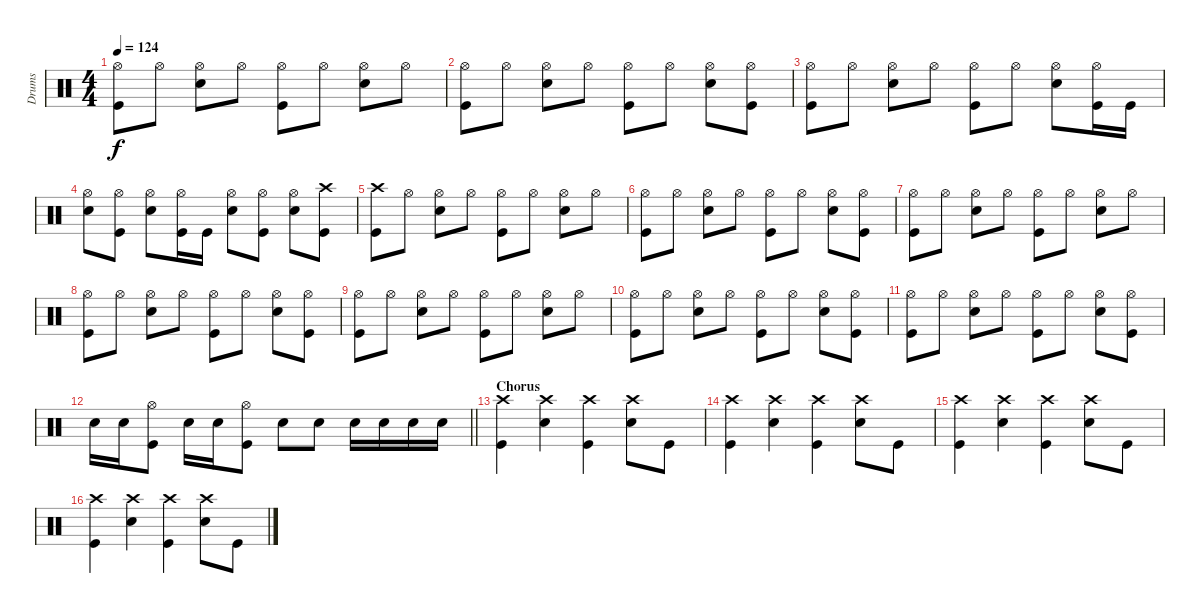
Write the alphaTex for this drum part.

\track ("Drums" "Drums") {instrument percussion}
\staff {score}
\articulation defaults
\ts (4 4)
\tempo 124
\clef neutral
\ks c
("Kick (hit)" "Hi-Hat (open)").8{dy f} "Hi-Hat (open)".8 ("Snare (hit) 2" "Hi-Hat (open)").8 "Hi-Hat (open)".8 ("Kick (hit)" "Hi-Hat (open)").8 "Hi-Hat (open)".8 ("Snare (hit) 2" "Hi-Hat (open)").8 "Hi-Hat (open)".8 |
("Kick (hit)" "Hi-Hat (open)").8 "Hi-Hat (open)".8 ("Snare (hit) 2" "Hi-Hat (open)").8 "Hi-Hat (open)".8 ("Kick (hit)" "Hi-Hat (open)").8 "Hi-Hat (open)".8 ("Snare (hit) 2" "Hi-Hat (open)").8 ("Hi-Hat (open)" "Kick (hit)").8 |
("Kick (hit)" "Hi-Hat (open)").8 "Hi-Hat (open)".8 ("Snare (hit) 2" "Hi-Hat (open)").8 "Hi-Hat (open)".8 ("Kick (hit)" "Hi-Hat (open)").8 "Hi-Hat (open)".8 ("Snare (hit) 2" "Hi-Hat (open)").8 ("Hi-Hat (open)" "Kick (hit)").16 "Kick (hit)".16 |
("Hi-Hat (open)" "Snare (hit) 2").8 ("Kick (hit)" "Hi-Hat (open)").8 ("Snare (hit) 2" "Hi-Hat (open)").8 ("Kick (hit)" "Hi-Hat (open)").16 "Kick (hit)".16 ("Hi-Hat (open)" "Snare (hit) 2").8 ("Kick (hit)" "Hi-Hat (open)").8 ("Snare (hit) 2" "Hi-Hat (open)").8 ("Kick (hit)" "Crash high (hit)").8 |
("Kick (hit)" "Crash high (hit)").8 "Hi-Hat (open)".8 ("Snare (hit) 2" "Hi-Hat (open)").8 "Hi-Hat (open)".8 ("Kick (hit)" "Hi-Hat (open)").8 "Hi-Hat (open)".8 ("Snare (hit) 2" "Hi-Hat (open)").8 "Hi-Hat (open)".8 |
("Kick (hit)" "Hi-Hat (open)").8 "Hi-Hat (open)".8 ("Snare (hit) 2" "Hi-Hat (open)").8 "Hi-Hat (open)".8 ("Kick (hit)" "Hi-Hat (open)").8 "Hi-Hat (open)".8 ("Snare (hit) 2" "Hi-Hat (open)").8 ("Hi-Hat (open)" "Kick (hit)").8 |
("Kick (hit)" "Hi-Hat (open)").8 "Hi-Hat (open)".8 ("Snare (hit) 2" "Hi-Hat (open)").8 "Hi-Hat (open)".8 ("Kick (hit)" "Hi-Hat (open)").8 "Hi-Hat (open)".8 ("Snare (hit) 2" "Hi-Hat (open)").8 "Hi-Hat (open)".8 |
("Kick (hit)" "Hi-Hat (open)").8 "Hi-Hat (open)".8 ("Snare (hit) 2" "Hi-Hat (open)").8 "Hi-Hat (open)".8 ("Kick (hit)" "Hi-Hat (open)").8 "Hi-Hat (open)".8 ("Snare (hit) 2" "Hi-Hat (open)").8 ("Hi-Hat (open)" "Kick (hit)").8 |
("Kick (hit)" "Hi-Hat (open)").8 "Hi-Hat (open)".8 ("Snare (hit) 2" "Hi-Hat (open)").8 "Hi-Hat (open)".8 ("Kick (hit)" "Hi-Hat (open)").8 "Hi-Hat (open)".8 ("Snare (hit) 2" "Hi-Hat (open)").8 "Hi-Hat (open)".8 |
("Kick (hit)" "Hi-Hat (open)").8 "Hi-Hat (open)".8 ("Snare (hit) 2" "Hi-Hat (open)").8 "Hi-Hat (open)".8 ("Kick (hit)" "Hi-Hat (open)").8 "Hi-Hat (open)".8 ("Snare (hit) 2" "Hi-Hat (open)").8 ("Hi-Hat (open)" "Kick (hit)").8 |
("Kick (hit)" "Hi-Hat (open)").8 "Hi-Hat (open)".8 ("Snare (hit) 2" "Hi-Hat (open)").8 "Hi-Hat (open)".8 ("Kick (hit)" "Hi-Hat (open)").8 "Hi-Hat (open)".8 ("Snare (hit) 2" "Hi-Hat (open)").8 ("Hi-Hat (open)" "Kick (hit)").8 |
\barLineRight lightlight "Snare (hit) 2".16 "Snare (hit) 2".16
("Kick (hit)" "Hi-Hat (open)").8 "Snare (hit) 2".16 "Snare (hit) 2".16 ("Kick (hit)" "Hi-Hat (open)").8 "Snare (hit) 2".8 "Snare (hit) 2".8 "Snare (hit) 2".16 "Snare (hit) 2".16 "Snare (hit) 2".16 "Snare (hit) 2".16 |
\section ("" "Chorus")
("Kick (hit)" "Crash high (hit)").4 ("Snare (hit) 2" "Crash high (hit)").4 ("Kick (hit)" "Crash high (hit)").4 ("Snare (hit) 2" "Crash high (hit)").8 "Kick (hit)".8 |
("Kick (hit)" "Crash high (hit)").4 ("Snare (hit) 2" "Crash high (hit)").4 ("Kick (hit)" "Crash high (hit)").4 ("Snare (hit) 2" "Crash high (hit)").8 "Kick (hit)".8 |
("Kick (hit)" "Crash high (hit)").4 ("Snare (hit) 2" "Crash high (hit)").4 ("Kick (hit)" "Crash high (hit)").4 ("Snare (hit) 2" "Crash high (hit)").8 "Kick (hit)".8 |
("Kick (hit)" "Crash high (hit)").4 ("Snare (hit) 2" "Crash high (hit)").4 ("Kick (hit)" "Crash high (hit)").4 ("Snare (hit) 2" "Crash high (hit)").8 "Kick (hit)".8
